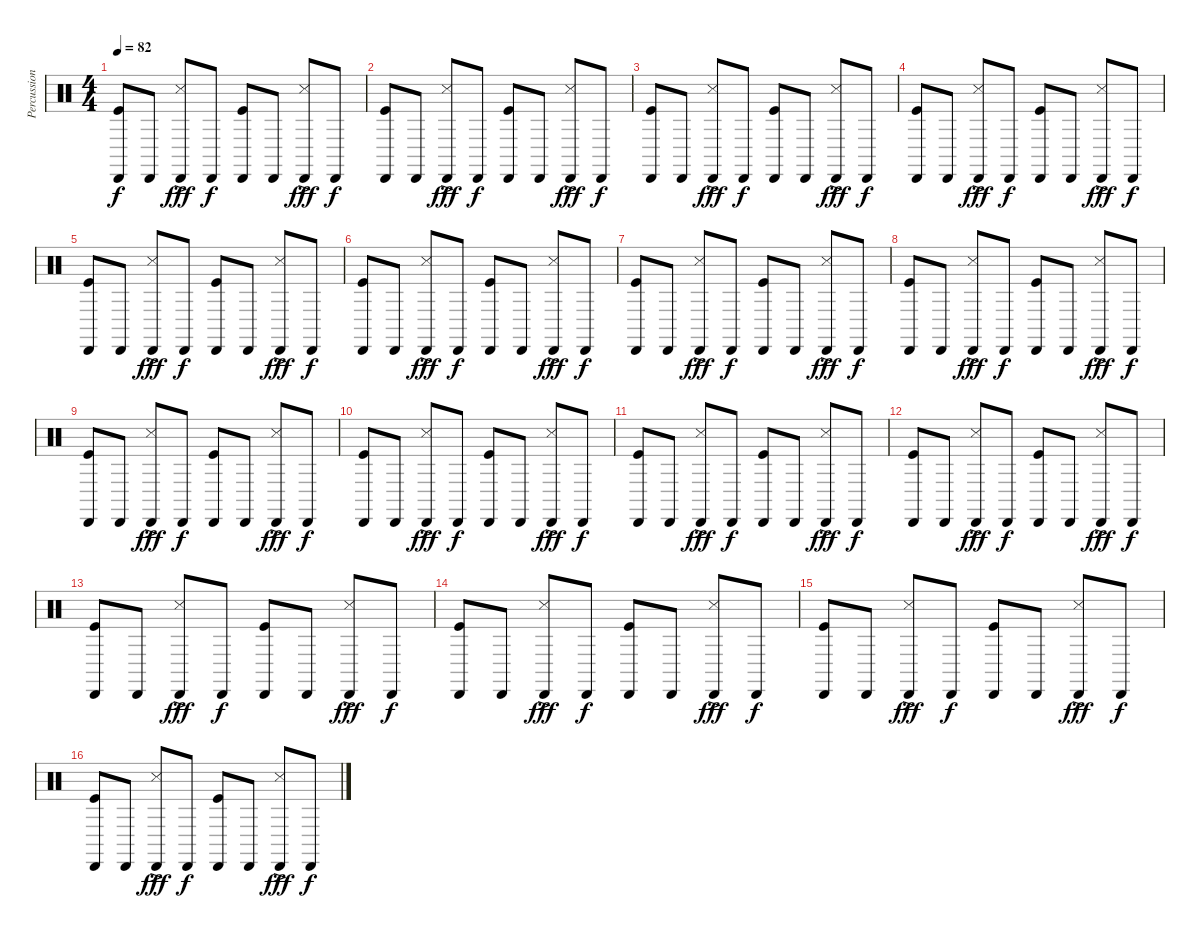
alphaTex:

\track ("Percussion" "Percussion") {instrument percussion}
\staff {score}
\articulation defaults
\ts (4 4)
\tempo 82
\clef neutral
\ks c
("Cabasa (hit)" "Kick (hit)").8{dy f} "Cabasa (hit)".8 ("Cabasa (hit)" "Snare (side stick) 3"{ac}).8{dy fff} "Cabasa (hit)".8{dy f} ("Cabasa (hit)" "Kick (hit)").8 "Cabasa (hit)".8 ("Cabasa (hit)" "Snare (side stick) 3"{ac}).8{dy fff} "Cabasa (hit)".8{dy f} |
("Cabasa (hit)" "Kick (hit)").8 "Cabasa (hit)".8 ("Cabasa (hit)" "Snare (side stick) 3"{ac}).8{dy fff} "Cabasa (hit)".8{dy f} ("Cabasa (hit)" "Kick (hit)").8 "Cabasa (hit)".8 ("Cabasa (hit)" "Snare (side stick) 3"{ac}).8{dy fff} "Cabasa (hit)".8{dy f} |
("Cabasa (hit)" "Kick (hit)").8 "Cabasa (hit)".8 ("Cabasa (hit)" "Snare (side stick) 3"{ac}).8{dy fff} "Cabasa (hit)".8{dy f} ("Cabasa (hit)" "Kick (hit)").8 "Cabasa (hit)".8 ("Cabasa (hit)" "Snare (side stick) 3"{ac}).8{dy fff} "Cabasa (hit)".8{dy f} |
("Cabasa (hit)" "Kick (hit)").8 "Cabasa (hit)".8 ("Cabasa (hit)" "Snare (side stick) 3"{ac}).8{dy fff} "Cabasa (hit)".8{dy f} ("Cabasa (hit)" "Kick (hit)").8 "Cabasa (hit)".8 ("Cabasa (hit)" "Snare (side stick) 3"{ac}).8{dy fff} "Cabasa (hit)".8{dy f} |
("Cabasa (hit)" "Kick (hit)").8 "Cabasa (hit)".8 ("Cabasa (hit)" "Snare (side stick) 3"{ac}).8{dy fff} "Cabasa (hit)".8{dy f} ("Cabasa (hit)" "Kick (hit)").8 "Cabasa (hit)".8 ("Cabasa (hit)" "Snare (side stick) 3"{ac}).8{dy fff} "Cabasa (hit)".8{dy f} |
("Cabasa (hit)" "Kick (hit)").8 "Cabasa (hit)".8 ("Cabasa (hit)" "Snare (side stick) 3"{ac}).8{dy fff} "Cabasa (hit)".8{dy f} ("Cabasa (hit)" "Kick (hit)").8 "Cabasa (hit)".8 ("Cabasa (hit)" "Snare (side stick) 3"{ac}).8{dy fff} "Cabasa (hit)".8{dy f} |
("Cabasa (hit)" "Kick (hit)").8 "Cabasa (hit)".8 ("Cabasa (hit)" "Snare (side stick) 3"{ac}).8{dy fff} "Cabasa (hit)".8{dy f} ("Cabasa (hit)" "Kick (hit)").8 "Cabasa (hit)".8 ("Cabasa (hit)" "Snare (side stick) 3"{ac}).8{dy fff} "Cabasa (hit)".8{dy f} |
("Cabasa (hit)" "Kick (hit)").8 "Cabasa (hit)".8 ("Cabasa (hit)" "Snare (side stick) 3"{ac}).8{dy fff} "Cabasa (hit)".8{dy f} ("Cabasa (hit)" "Kick (hit)").8 "Cabasa (hit)".8 ("Cabasa (hit)" "Snare (side stick) 3"{ac}).8{dy fff} "Cabasa (hit)".8{dy f} |
("Cabasa (hit)" "Kick (hit)").8 "Cabasa (hit)".8 ("Cabasa (hit)" "Snare (side stick) 3"{ac}).8{dy fff} "Cabasa (hit)".8{dy f} ("Cabasa (hit)" "Kick (hit)").8 "Cabasa (hit)".8 ("Cabasa (hit)" "Snare (side stick) 3"{ac}).8{dy fff} "Cabasa (hit)".8{dy f} |
("Cabasa (hit)" "Kick (hit)").8 "Cabasa (hit)".8 ("Cabasa (hit)" "Snare (side stick) 3"{ac}).8{dy fff} "Cabasa (hit)".8{dy f} ("Cabasa (hit)" "Kick (hit)").8 "Cabasa (hit)".8 ("Cabasa (hit)" "Snare (side stick) 3"{ac}).8{dy fff} "Cabasa (hit)".8{dy f} |
("Cabasa (hit)" "Kick (hit)").8 "Cabasa (hit)".8 ("Cabasa (hit)" "Snare (side stick) 3"{ac}).8{dy fff} "Cabasa (hit)".8{dy f} ("Cabasa (hit)" "Kick (hit)").8 "Cabasa (hit)".8 ("Cabasa (hit)" "Snare (side stick) 3"{ac}).8{dy fff} "Cabasa (hit)".8{dy f} |
("Cabasa (hit)" "Kick (hit)").8 "Cabasa (hit)".8 ("Cabasa (hit)" "Snare (side stick) 3"{ac}).8{dy fff} "Cabasa (hit)".8{dy f} ("Cabasa (hit)" "Kick (hit)").8 "Cabasa (hit)".8 ("Cabasa (hit)" "Snare (side stick) 3"{ac}).8{dy fff} "Cabasa (hit)".8{dy f} |
("Cabasa (hit)" "Kick (hit)").8 "Cabasa (hit)".8 ("Cabasa (hit)" "Snare (side stick) 3"{ac}).8{dy fff} "Cabasa (hit)".8{dy f} ("Cabasa (hit)" "Kick (hit)").8 "Cabasa (hit)".8 ("Cabasa (hit)" "Snare (side stick) 3"{ac}).8{dy fff} "Cabasa (hit)".8{dy f} |
("Cabasa (hit)" "Kick (hit)").8 "Cabasa (hit)".8 ("Cabasa (hit)" "Snare (side stick) 3"{ac}).8{dy fff} "Cabasa (hit)".8{dy f} ("Cabasa (hit)" "Kick (hit)").8 "Cabasa (hit)".8 ("Cabasa (hit)" "Snare (side stick) 3"{ac}).8{dy fff} "Cabasa (hit)".8{dy f} |
("Cabasa (hit)" "Kick (hit)").8 "Cabasa (hit)".8 ("Cabasa (hit)" "Snare (side stick) 3"{ac}).8{dy fff} "Cabasa (hit)".8{dy f} ("Cabasa (hit)" "Kick (hit)").8 "Cabasa (hit)".8 ("Cabasa (hit)" "Snare (side stick) 3"{ac}).8{dy fff} "Cabasa (hit)".8{dy f} |
("Cabasa (hit)" "Kick (hit)").8 "Cabasa (hit)".8 ("Cabasa (hit)" "Snare (side stick) 3"{ac}).8{dy fff} "Cabasa (hit)".8{dy f} ("Cabasa (hit)" "Kick (hit)").8 "Cabasa (hit)".8 ("Cabasa (hit)" "Snare (side stick) 3"{ac}).8{dy fff} "Cabasa (hit)".8{dy f}
